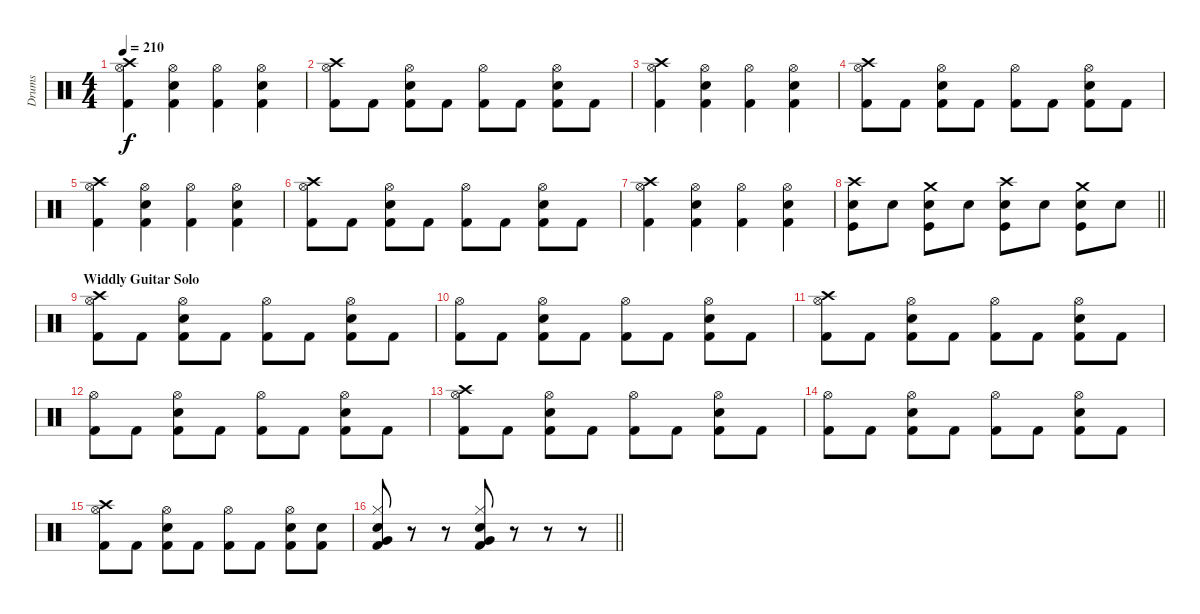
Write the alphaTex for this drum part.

\track ("Drums" "Drums") {instrument percussion}
\staff {score}
\articulation defaults
\ts (4 4)
\tempo 210
\clef neutral
\ks c
("Crash high (hit)" "Hi-Hat (open)" "Kick (hit) 2").4{dy f} ("Hi-Hat (open)" "Snare (hit) 2" "Kick (hit) 2").4 ("Hi-Hat (open)" "Kick (hit) 2").4 ("Hi-Hat (open)" "Snare (hit) 2" "Kick (hit) 2").4 |
("Crash high (hit)" "Hi-Hat (open)" "Kick (hit) 2").8 "Kick (hit) 2".8 ("Hi-Hat (open)" "Snare (hit) 2" "Kick (hit) 2").8 "Kick (hit) 2".8 ("Hi-Hat (open)" "Kick (hit) 2").8 "Kick (hit) 2".8 ("Hi-Hat (open)" "Snare (hit) 2" "Kick (hit) 2").8 "Kick (hit) 2".8 |
("Crash high (hit)" "Hi-Hat (open)" "Kick (hit) 2").4 ("Hi-Hat (open)" "Snare (hit) 2" "Kick (hit) 2").4 ("Hi-Hat (open)" "Kick (hit) 2").4 ("Hi-Hat (open)" "Snare (hit) 2" "Kick (hit) 2").4 |
("Crash high (hit)" "Hi-Hat (open)" "Kick (hit) 2").8 "Kick (hit) 2".8 ("Hi-Hat (open)" "Snare (hit) 2" "Kick (hit) 2").8 "Kick (hit) 2".8 ("Hi-Hat (open)" "Kick (hit) 2").8 "Kick (hit) 2".8 ("Hi-Hat (open)" "Snare (hit) 2" "Kick (hit) 2").8 "Kick (hit) 2".8 |
("Crash high (hit)" "Hi-Hat (open)" "Kick (hit) 2").4 ("Hi-Hat (open)" "Snare (hit) 2" "Kick (hit) 2").4 ("Hi-Hat (open)" "Kick (hit) 2").4 ("Hi-Hat (open)" "Snare (hit) 2" "Kick (hit) 2").4 |
("Crash high (hit)" "Hi-Hat (open)" "Kick (hit) 2").8 "Kick (hit) 2".8 ("Hi-Hat (open)" "Snare (hit) 2" "Kick (hit) 2").8 "Kick (hit) 2".8 ("Hi-Hat (open)" "Kick (hit) 2").8 "Kick (hit) 2".8 ("Hi-Hat (open)" "Snare (hit) 2" "Kick (hit) 2").8 "Kick (hit) 2".8 |
("Crash high (hit)" "Hi-Hat (open)" "Kick (hit) 2").4 ("Hi-Hat (open)" "Snare (hit) 2" "Kick (hit) 2").4 ("Hi-Hat (open)" "Kick (hit) 2").4 ("Hi-Hat (open)" "Snare (hit) 2" "Kick (hit) 2").4 |
\barLineRight lightlight
("Crash high (hit)" "Snare (hit) 2" "Kick (hit)").8 "Snare (hit) 2".8 ("Crash medium (hit)" "Snare (hit) 2" "Kick (hit)").8 "Snare (hit) 2".8 ("Crash high (hit)" "Snare (hit) 2" "Kick (hit)").8 "Snare (hit) 2".8 ("Crash medium (hit)" "Snare (hit) 2" "Kick (hit)").8 "Snare (hit) 2".8 |
\section ("" "Widdly Guitar Solo")
("Crash high (hit)" "Hi-Hat (open)" "Kick (hit) 2").8 "Kick (hit) 2".8 ("Hi-Hat (open)" "Snare (hit) 2" "Kick (hit) 2").8 "Kick (hit) 2".8 ("Hi-Hat (open)" "Kick (hit) 2").8 "Kick (hit) 2".8 ("Hi-Hat (open)" "Snare (hit) 2" "Kick (hit) 2").8 "Kick (hit) 2".8 |
("Hi-Hat (open)" "Kick (hit) 2").8 "Kick (hit) 2".8 ("Hi-Hat (open)" "Snare (hit) 2" "Kick (hit) 2").8 "Kick (hit) 2".8 ("Hi-Hat (open)" "Kick (hit) 2").8 "Kick (hit) 2".8 ("Hi-Hat (open)" "Snare (hit) 2" "Kick (hit) 2").8 "Kick (hit) 2".8 |
("Crash high (hit)" "Hi-Hat (open)" "Kick (hit) 2").8 "Kick (hit) 2".8 ("Hi-Hat (open)" "Snare (hit) 2" "Kick (hit) 2").8 "Kick (hit) 2".8 ("Hi-Hat (open)" "Kick (hit) 2").8 "Kick (hit) 2".8 ("Hi-Hat (open)" "Snare (hit) 2" "Kick (hit) 2").8 "Kick (hit) 2".8 |
("Hi-Hat (open)" "Kick (hit) 2").8 "Kick (hit) 2".8 ("Hi-Hat (open)" "Snare (hit) 2" "Kick (hit) 2").8 "Kick (hit) 2".8 ("Hi-Hat (open)" "Kick (hit) 2").8 "Kick (hit) 2".8 ("Hi-Hat (open)" "Snare (hit) 2" "Kick (hit) 2").8 "Kick (hit) 2".8 |
("Crash high (hit)" "Hi-Hat (open)" "Kick (hit) 2").8 "Kick (hit) 2".8 ("Hi-Hat (open)" "Snare (hit) 2" "Kick (hit) 2").8 "Kick (hit) 2".8 ("Hi-Hat (open)" "Kick (hit) 2").8 "Kick (hit) 2".8 ("Hi-Hat (open)" "Snare (hit) 2" "Kick (hit) 2").8 "Kick (hit) 2".8 |
("Hi-Hat (open)" "Kick (hit) 2").8 "Kick (hit) 2".8 ("Hi-Hat (open)" "Snare (hit) 2" "Kick (hit) 2").8 "Kick (hit) 2".8 ("Hi-Hat (open)" "Kick (hit) 2").8 "Kick (hit) 2".8 ("Hi-Hat (open)" "Snare (hit) 2" "Kick (hit) 2").8 "Kick (hit) 2".8 |
("Crash high (hit)" "Hi-Hat (open)" "Kick (hit) 2").8 "Kick (hit) 2".8 ("Hi-Hat (open)" "Snare (hit) 2" "Kick (hit) 2").8 "Kick (hit) 2".8 ("Hi-Hat (open)" "Kick (hit) 2").8 "Kick (hit) 2".8 ("Hi-Hat (open)" "Snare (hit) 2" "Kick (hit) 2").8 ("Snare (hit) 2" "Kick (hit) 2").8 |
\barLineRight lightlight
("Hi-Hat (closed)" "Very Low Tom (hit)" "Snare (hit) 2" "Kick (hit) 2").8 r.8 r.8 ("Hi-Hat (closed)" "Very Low Tom (hit)" "Snare (hit) 2" "Kick (hit) 2").8 r.8 r.8 r.8
